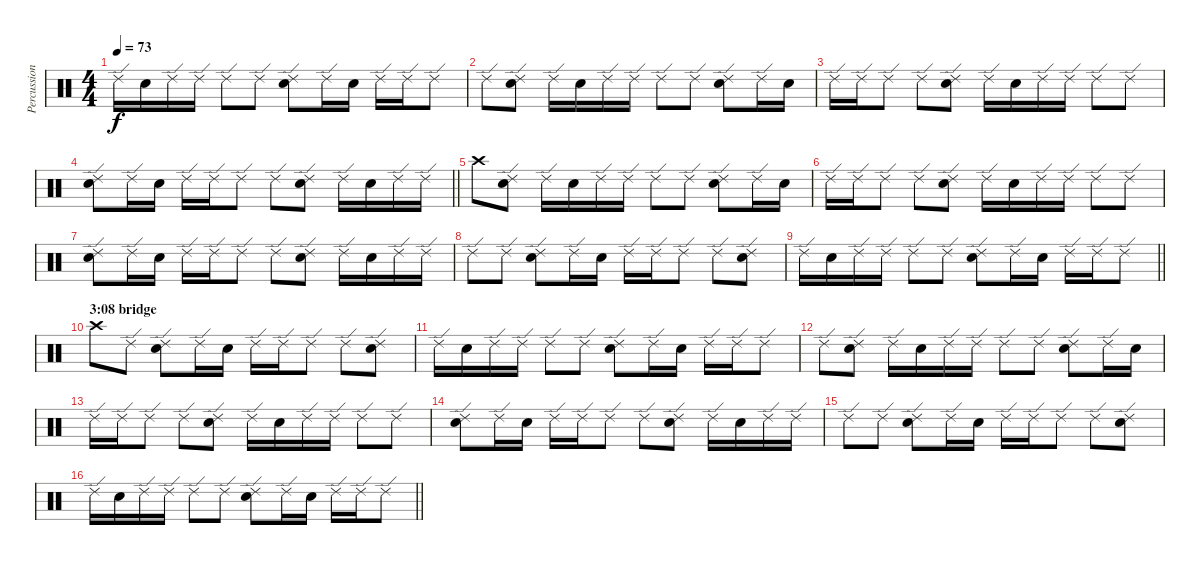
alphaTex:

\track ("Percussion" "Percussion") {instrument percussion}
\staff {score}
\articulation defaults
\ts (4 4)
\tempo 73
\clef neutral
\ks c "Ride (edge) 2".16{dy f} "Electric Snare (hit)".16 "Ride (edge) 2".16 "Ride (edge) 2".16 "Ride (edge) 2".8 "Ride (edge) 2".8
("Ride (edge) 2" "Electric Snare (hit)").8 "Ride (edge) 2".16 "Electric Snare (hit)".16 "Ride (edge) 2".16 "Ride (edge) 2".16 "Ride (edge) 2".8 |
"Ride (edge) 2".8 ("Ride (edge) 2" "Electric Snare (hit)").8 "Ride (edge) 2".16 "Electric Snare (hit)".16 "Ride (edge) 2".16 "Ride (edge) 2".16 "Ride (edge) 2".8 "Ride (edge) 2".8 ("Ride (edge) 2" "Electric Snare (hit)").8 "Ride (edge) 2".16 "Electric Snare (hit)".16 |
"Ride (edge) 2".16 "Ride (edge) 2".16 "Ride (edge) 2".8 "Ride (edge) 2".8 ("Ride (edge) 2" "Electric Snare (hit)").8 "Ride (edge) 2".16 "Electric Snare (hit)".16 "Ride (edge) 2".16 "Ride (edge) 2".16 "Ride (edge) 2".8 "Ride (edge) 2".8 |
\barLineRight lightlight
("Ride (edge) 2" "Electric Snare (hit)").8 "Ride (edge) 2".16 "Electric Snare (hit)".16 "Ride (edge) 2".16 "Ride (edge) 2".16 "Ride (edge) 2".8 "Ride (edge) 2".8 ("Ride (edge) 2" "Electric Snare (hit)").8 "Ride (edge) 2".16 "Electric Snare (hit)".16 "Ride (edge) 2".16 "Ride (edge) 2".16 |
"Crash high (hit)".8 ("Ride (edge) 2" "Electric Snare (hit)").8 "Ride (edge) 2".16 "Electric Snare (hit)".16 "Ride (edge) 2".16 "Ride (edge) 2".16 "Ride (edge) 2".8 "Ride (edge) 2".8 ("Ride (edge) 2" "Electric Snare (hit)").8 "Ride (edge) 2".16 "Electric Snare (hit)".16 |
"Ride (edge) 2".16 "Ride (edge) 2".16 "Ride (edge) 2".8 "Ride (edge) 2".8 ("Ride (edge) 2" "Electric Snare (hit)").8 "Ride (edge) 2".16 "Electric Snare (hit)".16 "Ride (edge) 2".16 "Ride (edge) 2".16 "Ride (edge) 2".8 "Ride (edge) 2".8 |
("Ride (edge) 2" "Electric Snare (hit)").8 "Ride (edge) 2".16 "Electric Snare (hit)".16 "Ride (edge) 2".16 "Ride (edge) 2".16 "Ride (edge) 2".8 "Ride (edge) 2".8 ("Ride (edge) 2" "Electric Snare (hit)").8 "Ride (edge) 2".16 "Electric Snare (hit)".16 "Ride (edge) 2".16 "Ride (edge) 2".16 |
"Ride (edge) 2".8 "Ride (edge) 2".8 ("Ride (edge) 2" "Electric Snare (hit)").8 "Ride (edge) 2".16 "Electric Snare (hit)".16 "Ride (edge) 2".16 "Ride (edge) 2".16 "Ride (edge) 2".8 "Ride (edge) 2".8 ("Ride (edge) 2" "Electric Snare (hit)").8 |
\barLineRight lightlight "Ride (edge) 2".16 "Electric Snare (hit)".16 "Ride (edge) 2".16 "Ride (edge) 2".16 "Ride (edge) 2".8 "Ride (edge) 2".8
("Ride (edge) 2" "Electric Snare (hit)").8 "Ride (edge) 2".16 "Electric Snare (hit)".16 "Ride (edge) 2".16 "Ride (edge) 2".16 "Ride (edge) 2".8 |
\section ("" "3:08 bridge")
"Crash high (hit)".8 "Ride (edge) 2".8 ("Ride (edge) 2" "Electric Snare (hit)").8 "Ride (edge) 2".16 "Electric Snare (hit)".16 "Ride (edge) 2".16 "Ride (edge) 2".16 "Ride (edge) 2".8 "Ride (edge) 2".8 ("Ride (edge) 2" "Electric Snare (hit)").8 |
"Ride (edge) 2".16 "Electric Snare (hit)".16 "Ride (edge) 2".16 "Ride (edge) 2".16 "Ride (edge) 2".8 "Ride (edge) 2".8 ("Ride (edge) 2" "Electric Snare (hit)").8 "Ride (edge) 2".16 "Electric Snare (hit)".16 "Ride (edge) 2".16 "Ride (edge) 2".16 "Ride (edge) 2".8 |
"Ride (edge) 2".8 ("Ride (edge) 2" "Electric Snare (hit)").8 "Ride (edge) 2".16 "Electric Snare (hit)".16 "Ride (edge) 2".16 "Ride (edge) 2".16 "Ride (edge) 2".8 "Ride (edge) 2".8 ("Ride (edge) 2" "Electric Snare (hit)").8 "Ride (edge) 2".16 "Electric Snare (hit)".16 |
"Ride (edge) 2".16 "Ride (edge) 2".16 "Ride (edge) 2".8 "Ride (edge) 2".8 ("Ride (edge) 2" "Electric Snare (hit)").8 "Ride (edge) 2".16 "Electric Snare (hit)".16 "Ride (edge) 2".16 "Ride (edge) 2".16 "Ride (edge) 2".8 "Ride (edge) 2".8 |
("Ride (edge) 2" "Electric Snare (hit)").8 "Ride (edge) 2".16 "Electric Snare (hit)".16 "Ride (edge) 2".16 "Ride (edge) 2".16 "Ride (edge) 2".8 "Ride (edge) 2".8 ("Ride (edge) 2" "Electric Snare (hit)").8 "Ride (edge) 2".16 "Electric Snare (hit)".16 "Ride (edge) 2".16 "Ride (edge) 2".16 |
"Ride (edge) 2".8 "Ride (edge) 2".8 ("Ride (edge) 2" "Electric Snare (hit)").8 "Ride (edge) 2".16 "Electric Snare (hit)".16 "Ride (edge) 2".16 "Ride (edge) 2".16 "Ride (edge) 2".8 "Ride (edge) 2".8 ("Ride (edge) 2" "Electric Snare (hit)").8 |
\barLineRight lightlight "Ride (edge) 2".16 "Electric Snare (hit)".16 "Ride (edge) 2".16 "Ride (edge) 2".16 "Ride (edge) 2".8 "Ride (edge) 2".8
("Ride (edge) 2" "Electric Snare (hit)").8 "Ride (edge) 2".16 "Electric Snare (hit)".16 "Ride (edge) 2".16 "Ride (edge) 2".16 "Ride (edge) 2".8
